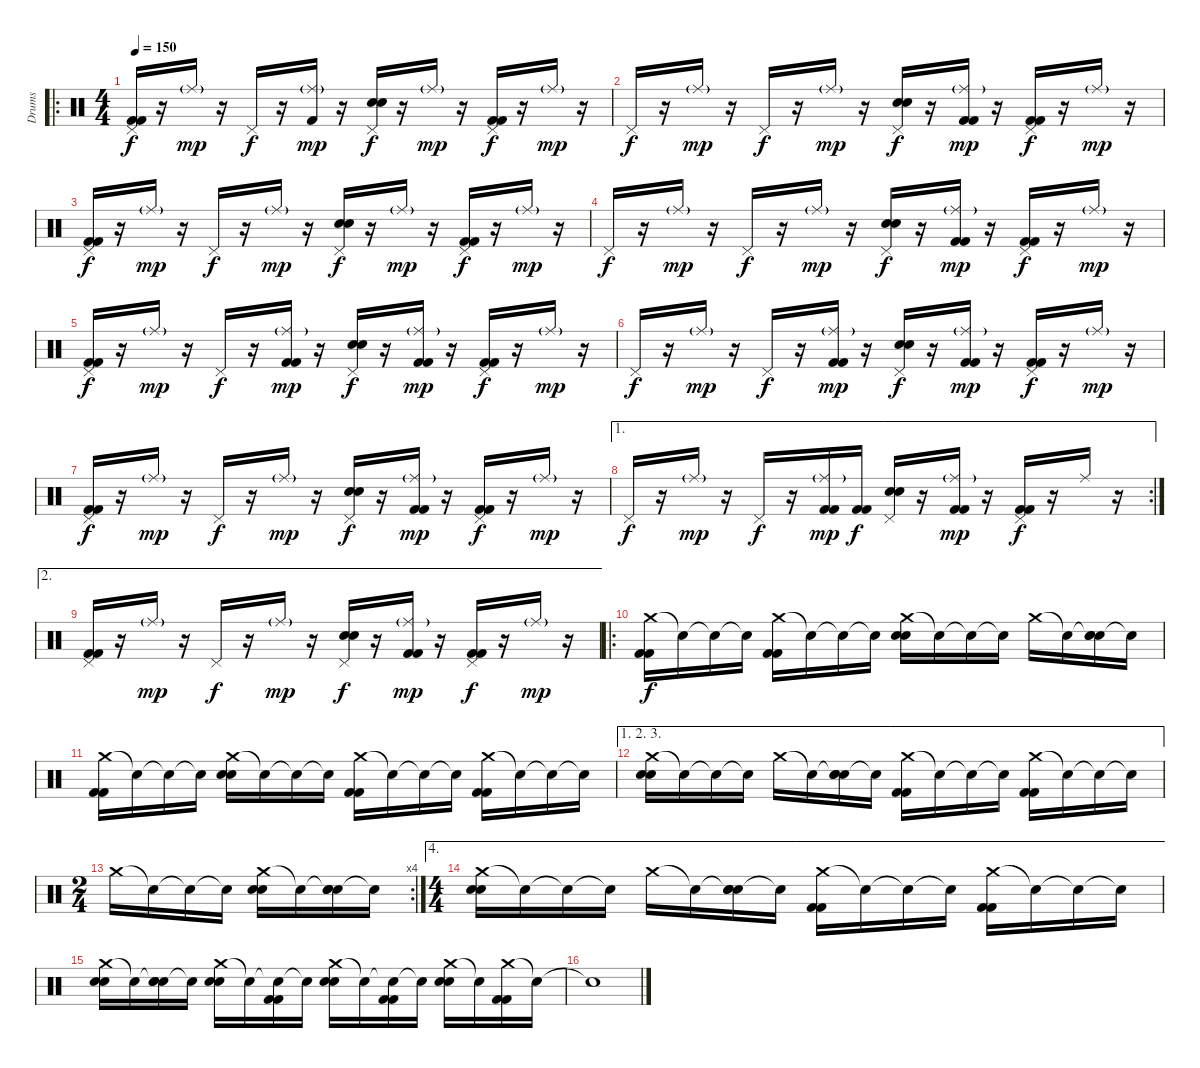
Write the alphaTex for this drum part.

\track ("Drums" "Drums") {instrument percussion}
\staff {score}
\articulation defaults
\ro
\ts (4 4)
\tempo 150
\clef neutral
\ks c
("Pedal Hi-Hat (hit)" "Kick (hit) 2" "Kick (hit) 2").16{dy f} r.16 "Ride (middle)"{g}.16{dy mp} r.16 "Pedal Hi-Hat (hit)".16{dy f} r.16 ("Ride (middle)"{g} "Kick (hit) 2").16{dy mp} r.16 ("Pedal Hi-Hat (hit)" "Electric Snare (hit)" "Electric Snare (hit)").16{dy f} r.16 "Ride (middle)"{g}.16{dy mp} r.16 ("Pedal Hi-Hat (hit)" "Kick (hit) 2" "Kick (hit) 2").16{dy f} r.16 "Ride (middle)"{g}.16{dy mp} r.16 |
"Pedal Hi-Hat (hit)".16{dy f} r.16 "Ride (middle)"{g}.16{dy mp} r.16 "Pedal Hi-Hat (hit)".16{dy f} r.16 "Ride (middle)"{g}.16{dy mp} r.16 ("Pedal Hi-Hat (hit)" "Electric Snare (hit)" "Electric Snare (hit)").16{dy f} r.16 ("Ride (middle)"{g} "Kick (hit) 2" "Kick (hit) 2").16{dy mp} r.16 ("Pedal Hi-Hat (hit)" "Kick (hit) 2" "Kick (hit) 2").16{dy f} r.16 "Ride (middle)"{g}.16{dy mp} r.16 |
("Pedal Hi-Hat (hit)" "Kick (hit) 2" "Kick (hit) 2").16{dy f} r.16 "Ride (middle)"{g}.16{dy mp} r.16 "Pedal Hi-Hat (hit)".16{dy f} r.16 "Ride (middle)"{g}.16{dy mp} r.16 ("Pedal Hi-Hat (hit)" "Electric Snare (hit)" "Electric Snare (hit)").16{dy f} r.16 "Ride (middle)"{g}.16{dy mp} r.16 ("Pedal Hi-Hat (hit)" "Kick (hit) 2" "Kick (hit) 2").16{dy f} r.16 "Ride (middle)"{g}.16{dy mp} r.16 |
"Pedal Hi-Hat (hit)".16{dy f} r.16 "Ride (middle)"{g}.16{dy mp} r.16 "Pedal Hi-Hat (hit)".16{dy f} r.16 "Ride (middle)"{g}.16{dy mp} r.16 ("Pedal Hi-Hat (hit)" "Electric Snare (hit)" "Electric Snare (hit)").16{dy f} r.16 ("Ride (middle)"{g} "Kick (hit) 2" "Kick (hit) 2").16{dy mp} r.16 ("Pedal Hi-Hat (hit)" "Kick (hit) 2" "Kick (hit) 2").16{dy f} r.16 "Ride (middle)"{g}.16{dy mp} r.16 |
("Pedal Hi-Hat (hit)" "Kick (hit) 2" "Kick (hit) 2").16{dy f} r.16 "Ride (middle)"{g}.16{dy mp} r.16 "Pedal Hi-Hat (hit)".16{dy f} r.16 ("Ride (middle)"{g} "Kick (hit) 2" "Kick (hit) 2").16{dy mp} r.16 ("Pedal Hi-Hat (hit)" "Electric Snare (hit)" "Electric Snare (hit)").16{dy f} r.16 ("Ride (middle)"{g} "Kick (hit) 2" "Kick (hit) 2").16{dy mp} r.16 ("Pedal Hi-Hat (hit)" "Kick (hit) 2" "Kick (hit) 2").16{dy f} r.16 "Ride (middle)"{g}.16{dy mp} r.16 |
"Pedal Hi-Hat (hit)".16{dy f} r.16 "Ride (middle)"{g}.16{dy mp} r.16 "Pedal Hi-Hat (hit)".16{dy f} r.16 ("Ride (middle)"{g} "Kick (hit) 2" "Kick (hit) 2").16{dy mp} r.16 ("Pedal Hi-Hat (hit)" "Electric Snare (hit)" "Electric Snare (hit)").16{dy f} r.16 ("Ride (middle)"{g} "Kick (hit) 2" "Kick (hit) 2").16{dy mp} r.16 ("Pedal Hi-Hat (hit)" "Kick (hit) 2" "Kick (hit) 2").16{dy f} r.16 "Ride (middle)"{g}.16{dy mp} r.16 |
("Pedal Hi-Hat (hit)" "Kick (hit) 2" "Kick (hit) 2").16{dy f} r.16 "Ride (middle)"{g}.16{dy mp} r.16 "Pedal Hi-Hat (hit)".16{dy f} r.16 "Ride (middle)"{g}.16{dy mp} r.16 ("Pedal Hi-Hat (hit)" "Electric Snare (hit)" "Electric Snare (hit)").16{dy f} r.16 ("Ride (middle)"{g} "Kick (hit) 2" "Kick (hit) 2").16{dy mp} r.16 ("Pedal Hi-Hat (hit)" "Kick (hit) 2" "Kick (hit) 2").16{dy f} r.16 "Ride (middle)"{g}.16{dy mp} r.16 |
\ae 1
\rc 2 "Pedal Hi-Hat (hit)".16{dy f}
r.16 "Ride (middle)"{g}.16{dy mp} r.16 "Pedal Hi-Hat (hit)".16{dy f} r.16 ("Ride (middle)"{g} "Kick (hit) 2" "Kick (hit) 2").16{dy mp} ("Kick (hit) 2" "Kick (hit) 2").16{dy f} ("Pedal Hi-Hat (hit)" "Electric Snare (hit)" "Electric Snare (hit)").16 r.16 ("Ride (middle)"{g} "Kick (hit) 2" "Kick (hit) 2").16{dy mp} r.16 ("Pedal Hi-Hat (hit)" "Kick (hit) 2" "Kick (hit) 2").16{dy f} r.16 "Ride (middle)".16 r.16 |
\ae 2
("Pedal Hi-Hat (hit)" "Kick (hit) 2" "Kick (hit) 2").16 r.16 "Ride (middle)"{g}.16{dy mp} r.16 "Pedal Hi-Hat (hit)".16{dy f} r.16 "Ride (middle)"{g}.16{dy mp} r.16 ("Pedal Hi-Hat (hit)" "Electric Snare (hit)" "Electric Snare (hit)").16{dy f} r.16 ("Ride (middle)"{g} "Kick (hit) 2" "Kick (hit) 2").16{dy mp} r.16 ("Pedal Hi-Hat (hit)" "Kick (hit) 2" "Kick (hit) 2").16{dy f} r.16 "Ride (middle)"{g}.16{dy mp} r.16 |
\ro
("Crash medium (hit)" "Kick (hit) 2" "Kick (hit) 2").16{dy f} "Snare (hit)"{t}.16 "Snare (hit)"{t}.16 "Snare (hit)"{t}.16 ("Crash medium (hit)" "Kick (hit) 2" "Kick (hit) 2").16 "Snare (hit)"{t}.16 "Snare (hit)"{t}.16 "Snare (hit)"{t}.16 ("Crash medium (hit)" "Electric Snare (hit)" "Electric Snare (hit)").16 "Snare (hit)"{t}.16 "Snare (hit)"{t}.16 "Snare (hit)"{t}.16 "Crash medium (hit)".16 "Snare (hit)"{t}.16 ("Snare (hit)"{t} "Electric Snare (hit)" "Electric Snare (hit)").16 "Snare (hit)"{t}.16 |
("Crash medium (hit)" "Kick (hit) 2" "Kick (hit) 2").16 "Snare (hit)"{t}.16 "Snare (hit)"{t}.16 "Snare (hit)"{t}.16 ("Crash medium (hit)" "Electric Snare (hit)" "Electric Snare (hit)").16 "Snare (hit)"{t}.16 "Snare (hit)"{t}.16 "Snare (hit)"{t}.16 ("Crash medium (hit)" "Kick (hit) 2" "Kick (hit) 2").16 "Snare (hit)"{t}.16 "Snare (hit)"{t}.16 "Snare (hit)"{t}.16 ("Crash medium (hit)" "Kick (hit) 2" "Kick (hit) 2").16 "Snare (hit)"{t}.16 "Snare (hit)"{t}.16 "Snare (hit)"{t}.16 |
\ae (1 2 3)
("Crash medium (hit)" "Electric Snare (hit)" "Electric Snare (hit)").16 "Snare (hit)"{t}.16 "Snare (hit)"{t}.16 "Snare (hit)"{t}.16 "Crash medium (hit)".16 "Snare (hit)"{t}.16 ("Snare (hit)"{t} "Electric Snare (hit)" "Electric Snare (hit)").16 "Snare (hit)"{t}.16 ("Crash medium (hit)" "Kick (hit) 2" "Kick (hit) 2").16 "Snare (hit)"{t}.16 "Snare (hit)"{t}.16 "Snare (hit)"{t}.16 ("Crash medium (hit)" "Kick (hit) 2" "Kick (hit) 2").16 "Snare (hit)"{t}.16 "Snare (hit)"{t}.16 "Snare (hit)"{t}.16 |
\rc 4
\ts (2 4)
"Crash medium (hit)".16 "Snare (hit)"{t}.16 "Snare (hit)"{t}.16 "Snare (hit)"{t}.16 ("Crash medium (hit)" "Electric Snare (hit)" "Electric Snare (hit)").16 "Snare (hit)"{t}.16 ("Snare (hit)"{t} "Electric Snare (hit)" "Electric Snare (hit)").16 "Snare (hit)"{t}.16 |
\ae 4
\ts (4 4)
("Crash medium (hit)" "Electric Snare (hit)" "Electric Snare (hit)").16 "Snare (hit)"{t}.16 "Snare (hit)"{t}.16 "Snare (hit)"{t}.16 "Crash medium (hit)".16 "Snare (hit)"{t}.16 ("Snare (hit)"{t} "Electric Snare (hit)" "Electric Snare (hit)").16 "Snare (hit)"{t}.16 ("Crash medium (hit)" "Kick (hit) 2" "Kick (hit) 2").16 "Snare (hit)"{t}.16 "Snare (hit)"{t}.16 "Snare (hit)"{t}.16 ("Crash medium (hit)" "Kick (hit) 2" "Kick (hit) 2").16 "Snare (hit)"{t}.16 "Snare (hit)"{t}.16 "Snare (hit)"{t}.16 |
("Crash medium (hit)" "Electric Snare (hit)" "Electric Snare (hit)").16 "Snare (hit)"{t}.16 ("Snare (hit)"{t} "Electric Snare (hit)" "Electric Snare (hit)").16 "Snare (hit)"{t}.16 ("Crash medium (hit)" "Electric Snare (hit)" "Electric Snare (hit)").16 "Snare (hit)"{t}.16 ("Snare (hit)"{t} "Kick (hit) 2" "Kick (hit) 2").16 "Snare (hit)"{t}.16 ("Crash medium (hit)" "Electric Snare (hit)" "Electric Snare (hit)").16 "Snare (hit)"{t}.16 ("Snare (hit)"{t} "Kick (hit) 2" "Kick (hit) 2").16 "Snare (hit)"{t}.16 ("Crash medium (hit)" "Electric Snare (hit)" "Electric Snare (hit)").16 "Snare (hit)"{t}.16 ("Crash medium (hit)" "Kick (hit) 2" "Kick (hit) 2").16 "Snare (hit)"{t}.16 |
"Snare (hit)"{t}.1
